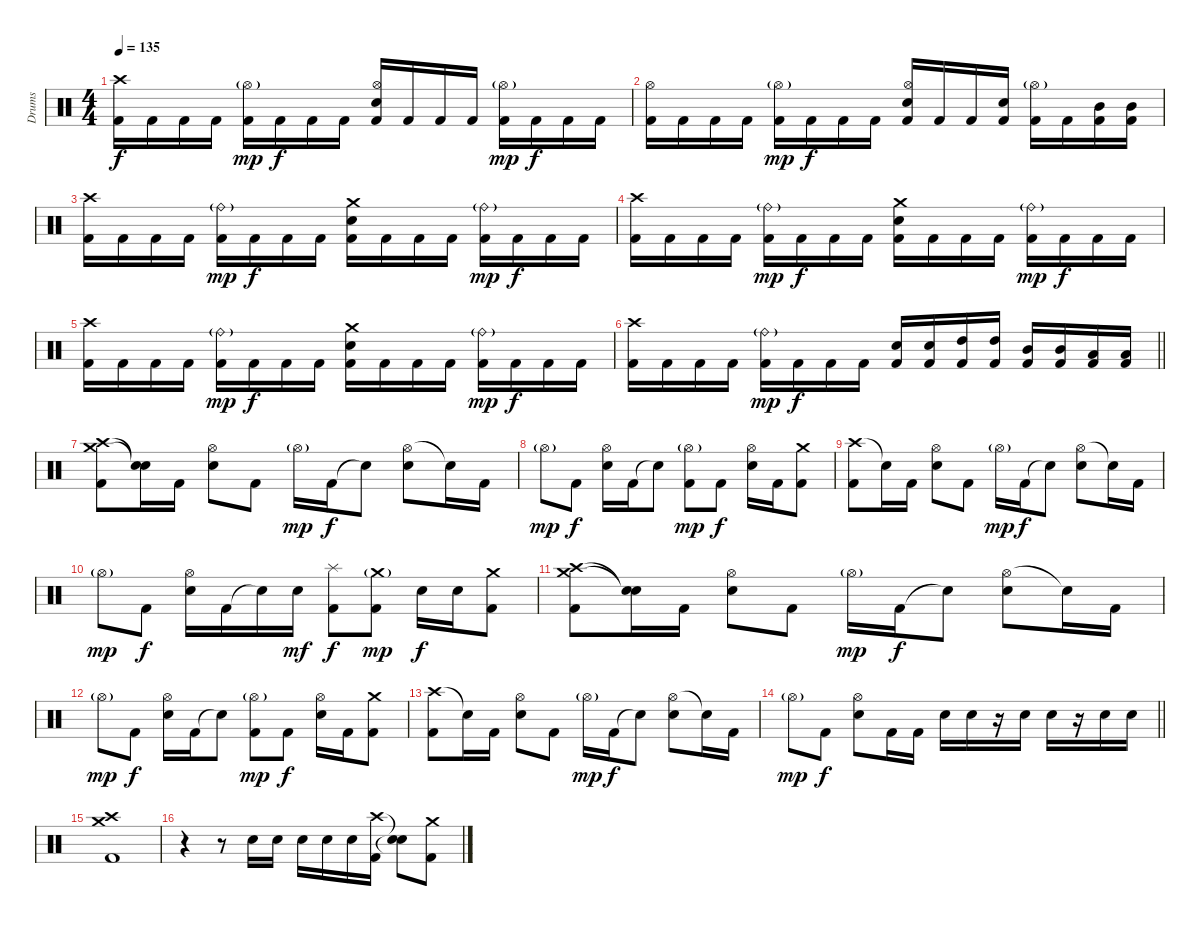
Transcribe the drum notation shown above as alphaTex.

\track ("Drums" "Drums") {instrument percussion}
\staff {score}
\articulation defaults
\ts (4 4)
\tempo 135
\clef neutral
\ks c
("Crash high (hit)" "Kick (hit) 2").16{dy f} "Kick (hit) 2".16 "Kick (hit) 2".16 "Kick (hit) 2".16 ("Hi-Hat (open)"{g} "Kick (hit) 2").16{dy mp} "Kick (hit) 2".16{dy f} "Kick (hit) 2".16 "Kick (hit) 2".16 ("Hi-Hat (open)" "Electric Snare (hit)" "Kick (hit) 2").16 "Kick (hit) 2".16 "Kick (hit) 2".16 "Kick (hit) 2".16 ("Hi-Hat (open)"{g} "Kick (hit) 2").16{dy mp} "Kick (hit) 2".16{dy f} "Kick (hit) 2".16 "Kick (hit) 2".16 |
("Hi-Hat (open)" "Kick (hit) 2").16 "Kick (hit) 2".16 "Kick (hit) 2".16 "Kick (hit) 2".16 ("Hi-Hat (open)"{g} "Kick (hit) 2").16{dy mp} "Kick (hit) 2".16{dy f} "Kick (hit) 2".16 "Kick (hit) 2".16 ("Hi-Hat (open)" "Electric Snare (hit)" "Kick (hit) 2").16 "Kick (hit) 2".16 "Kick (hit) 2".16 ("Electric Snare (hit)" "Kick (hit) 2").16 ("Hi-Hat (open)"{g} "Kick (hit) 2").16 "Kick (hit) 2".16 ("Mid Tom (hit)" "Kick (hit) 2").16 ("Mid Tom (hit)" "Kick (hit) 2").16 |
("Crash high (hit)" "Kick (hit) 2").16 "Kick (hit) 2".16 "Kick (hit) 2".16 "Kick (hit) 2".16 ("Ride (bell)"{g} "Kick (hit) 2").16{dy mp} "Kick (hit) 2".16{dy f} "Kick (hit) 2".16 "Kick (hit) 2".16 ("Crash medium (hit)" "Electric Snare (hit)" "Kick (hit) 2").16 "Kick (hit) 2".16 "Kick (hit) 2".16 "Kick (hit) 2".16 ("Ride (bell)"{g} "Kick (hit) 2").16{dy mp} "Kick (hit) 2".16{dy f} "Kick (hit) 2".16 "Kick (hit) 2".16 |
("Crash high (hit)" "Kick (hit) 2").16 "Kick (hit) 2".16 "Kick (hit) 2".16 "Kick (hit) 2".16 ("Ride (bell)"{g} "Kick (hit) 2").16{dy mp} "Kick (hit) 2".16{dy f} "Kick (hit) 2".16 "Kick (hit) 2".16 ("Crash medium (hit)" "Electric Snare (hit)" "Kick (hit) 2").16 "Kick (hit) 2".16 "Kick (hit) 2".16 "Kick (hit) 2".16 ("Ride (bell)"{g} "Kick (hit) 2").16{dy mp} "Kick (hit) 2".16{dy f} "Kick (hit) 2".16 "Kick (hit) 2".16 |
("Crash high (hit)" "Kick (hit) 2").16 "Kick (hit) 2".16 "Kick (hit) 2".16 "Kick (hit) 2".16 ("Ride (bell)"{g} "Kick (hit) 2").16{dy mp} "Kick (hit) 2".16{dy f} "Kick (hit) 2".16 "Kick (hit) 2".16 ("Crash medium (hit)" "Electric Snare (hit)" "Kick (hit) 2").16 "Kick (hit) 2".16 "Kick (hit) 2".16 "Kick (hit) 2".16 ("Ride (bell)"{g} "Kick (hit) 2").16{dy mp} "Kick (hit) 2".16{dy f} "Kick (hit) 2".16 "Kick (hit) 2".16 |
\barLineRight lightlight
("Crash high (hit)" "Kick (hit) 2").16 "Kick (hit) 2".16 "Kick (hit) 2".16 "Kick (hit) 2".16 ("Ride (bell)"{g} "Kick (hit) 2").16{dy mp} "Kick (hit) 2".16{dy f} "Kick (hit) 2".16 "Kick (hit) 2".16 ("Electric Snare (hit)" "Kick (hit) 2").16 ("Electric Snare (hit)" "Kick (hit) 2").16 ("High Tom (hit)" "Kick (hit) 2").16 ("High Tom (hit)" "Kick (hit) 2").16 ("Mid Tom (hit)" "Kick (hit) 2").16 ("Mid Tom (hit)" "Kick (hit) 2").16 ("Low Tom (hit)" "Kick (hit) 2").16 ("Low Tom (hit)" "Kick (hit) 2").16 |
("Crash high (hit)" "Crash medium (hit)" "Kick (hit) 2").8 ("Snare (hit)"{t} "Snare (hit)"{t}).16 "Kick (hit) 2".16 ("Hi-Hat (open)" "Electric Snare (hit)").8 "Kick (hit) 2".8 "Hi-Hat (open)"{g}.16{dy mp} "Kick (hit) 2".16{dy f} "Snare (hit)"{t}.8 ("Hi-Hat (open)" "Electric Snare (hit)").8 "Snare (hit)"{t}.16 "Kick (hit) 2".16 |
"Hi-Hat (open)"{g}.8{dy mp} "Kick (hit) 2".8{dy f} ("Hi-Hat (open)" "Electric Snare (hit)").16 "Kick (hit) 2".16 "Snare (hit)"{t}.8 ("Hi-Hat (open)"{g} "Kick (hit) 2").8{dy mp} "Kick (hit) 2".8{dy f} ("Hi-Hat (open)" "Electric Snare (hit)").16 "Kick (hit) 2".16 ("Crash medium (hit)" "Kick (hit) 2").8 |
("Crash high (hit)" "Kick (hit) 2").8 "Snare (hit)"{t}.16 "Kick (hit) 2".16 ("Hi-Hat (open)" "Electric Snare (hit)").8 "Kick (hit) 2".8 "Hi-Hat (open)"{g}.16{dy mp} "Kick (hit) 2".16{dy f} "Snare (hit)"{t}.8 ("Hi-Hat (open)" "Electric Snare (hit)").8 "Snare (hit)"{t}.16 "Kick (hit) 2".16 |
"Hi-Hat (open)"{g}.8{dy mp} "Kick (hit) 2".8{dy f} ("Hi-Hat (open)" "Electric Snare (hit)").16 "Kick (hit) 2".16 "Snare (hit)"{t}.16 "Electric Snare (hit)".16{dy mf} ("Splash (hit)" "Kick (hit) 2").8{dy f} ("Crash medium (hit)"{g} "Kick (hit) 2").8{dy mp} "Electric Snare (hit)".16{dy f} "Electric Snare (hit)".16 ("Crash medium (hit)" "Kick (hit) 2").8 |
("Crash high (hit)" "Crash medium (hit)" "Kick (hit) 2").8 ("Snare (hit)"{t} "Snare (hit)"{t}).16 "Kick (hit) 2".16 ("Hi-Hat (open)" "Electric Snare (hit)").8 "Kick (hit) 2".8 "Hi-Hat (open)"{g}.16{dy mp} "Kick (hit) 2".16{dy f} "Snare (hit)"{t}.8 ("Hi-Hat (open)" "Electric Snare (hit)").8 "Snare (hit)"{t}.16 "Kick (hit) 2".16 |
"Hi-Hat (open)"{g}.8{dy mp} "Kick (hit) 2".8{dy f} ("Hi-Hat (open)" "Electric Snare (hit)").16 "Kick (hit) 2".16 "Snare (hit)"{t}.8 ("Hi-Hat (open)"{g} "Kick (hit) 2").8{dy mp} "Kick (hit) 2".8{dy f} ("Hi-Hat (open)" "Electric Snare (hit)").16 "Kick (hit) 2".16 ("Crash medium (hit)" "Kick (hit) 2").8 |
("Crash high (hit)" "Kick (hit) 2").8 "Snare (hit)"{t}.16 "Kick (hit) 2".16 ("Hi-Hat (open)" "Electric Snare (hit)").8 "Kick (hit) 2".8 "Hi-Hat (open)"{g}.16{dy mp} "Kick (hit) 2".16{dy f} "Snare (hit)"{t}.8 ("Hi-Hat (open)" "Electric Snare (hit)").8 "Snare (hit)"{t}.16 "Kick (hit) 2".16 |
\barLineRight lightlight "Hi-Hat (open)"{g}.8{dy mp} "Kick (hit) 2".8{dy f}
("Hi-Hat (open)" "Electric Snare (hit)").8 "Kick (hit) 2".16 "Kick (hit) 2".16 "Electric Snare (hit)".16 "Electric Snare (hit)".16 r.16 "Electric Snare (hit)".16 "Electric Snare (hit)".16 r.16 "Electric Snare (hit)".16 "Electric Snare (hit)".16 |
("Crash high (hit)" "Crash medium (hit)" "Kick (hit) 2").1 |
r.4 r.8 "Electric Snare (hit)".16 "Electric Snare (hit)".16 "Electric Snare (hit)".16 "Electric Snare (hit)".16 "Electric Snare (hit)".16 ("Crash high (hit)" "Kick (hit) 2").16 ("Snare (hit)"{t} "Snare (hit)"{t}).8 ("Crash medium (hit)" "Kick (hit) 2").8
